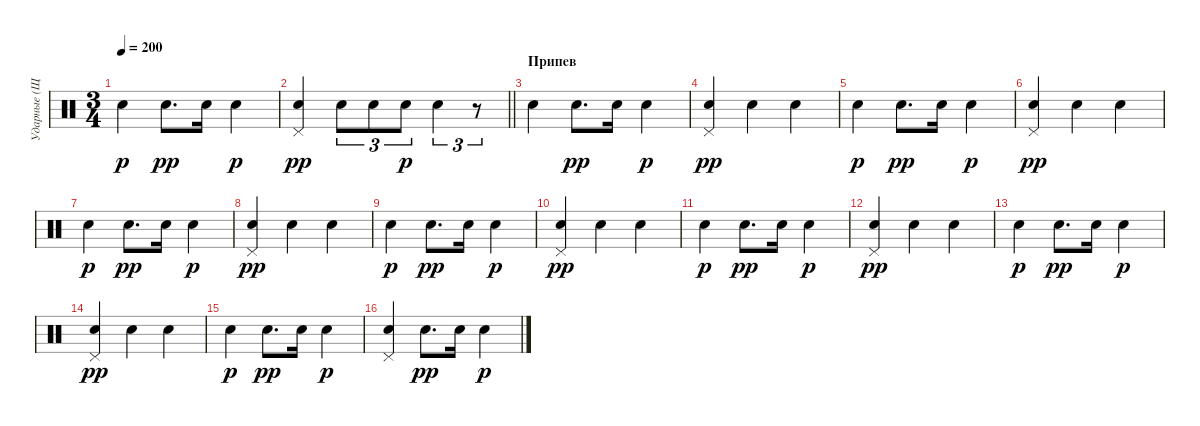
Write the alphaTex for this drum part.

\track ("Ударные (Щетками)" "Ударные (Щ") {instrument percussion}
\staff {score}
\articulation defaults
\ts (3 4)
\tempo 200
\clef neutral
\ks c "Snare (hit) 2".4{dy p} "Snare (hit) 2".8{d dy pp} "Snare (hit) 2".16 "Snare (hit) 2".4{dy p}
|
\barLineRight lightlight
("Pedal Hi-Hat (hit)" "Snare (hit) 2").4{dy pp} "Snare (hit) 2".8{tu (3 2)} "Snare (hit) 2".8{tu (3 2)} "Snare (hit) 2".8{tu (3 2) dy p} "Snare (hit) 2".4{tu (3 2)} r.8{tu (3 2)} |
\section ("" "Припев")
"Snare (hit) 2".4 "Snare (hit) 2".8{d dy pp} "Snare (hit) 2".16 "Snare (hit) 2".4{dy p} |
("Pedal Hi-Hat (hit)" "Snare (hit) 2").4{dy pp} "Snare (hit) 2".4 "Snare (hit) 2".4 |
"Snare (hit) 2".4{dy p} "Snare (hit) 2".8{d dy pp} "Snare (hit) 2".16 "Snare (hit) 2".4{dy p} |
("Pedal Hi-Hat (hit)" "Snare (hit) 2").4{dy pp} "Snare (hit) 2".4 "Snare (hit) 2".4 |
"Snare (hit) 2".4{dy p} "Snare (hit) 2".8{d dy pp} "Snare (hit) 2".16 "Snare (hit) 2".4{dy p} |
("Pedal Hi-Hat (hit)" "Snare (hit) 2").4{dy pp} "Snare (hit) 2".4 "Snare (hit) 2".4 |
"Snare (hit) 2".4{dy p} "Snare (hit) 2".8{d dy pp} "Snare (hit) 2".16 "Snare (hit) 2".4{dy p} |
("Pedal Hi-Hat (hit)" "Snare (hit) 2").4{dy pp} "Snare (hit) 2".4 "Snare (hit) 2".4 |
"Snare (hit) 2".4{dy p} "Snare (hit) 2".8{d dy pp} "Snare (hit) 2".16 "Snare (hit) 2".4{dy p} |
("Pedal Hi-Hat (hit)" "Snare (hit) 2").4{dy pp} "Snare (hit) 2".4 "Snare (hit) 2".4 |
"Snare (hit) 2".4{dy p} "Snare (hit) 2".8{d dy pp} "Snare (hit) 2".16 "Snare (hit) 2".4{dy p} |
("Pedal Hi-Hat (hit)" "Snare (hit) 2").4{dy pp} "Snare (hit) 2".4 "Snare (hit) 2".4 |
"Snare (hit) 2".4{dy p} "Snare (hit) 2".8{d dy pp} "Snare (hit) 2".16 "Snare (hit) 2".4{dy p} |
("Pedal Hi-Hat (hit)" "Snare (hit) 2").4 "Snare (hit) 2".8{d dy pp} "Snare (hit) 2".16 "Snare (hit) 2".4{dy p}
